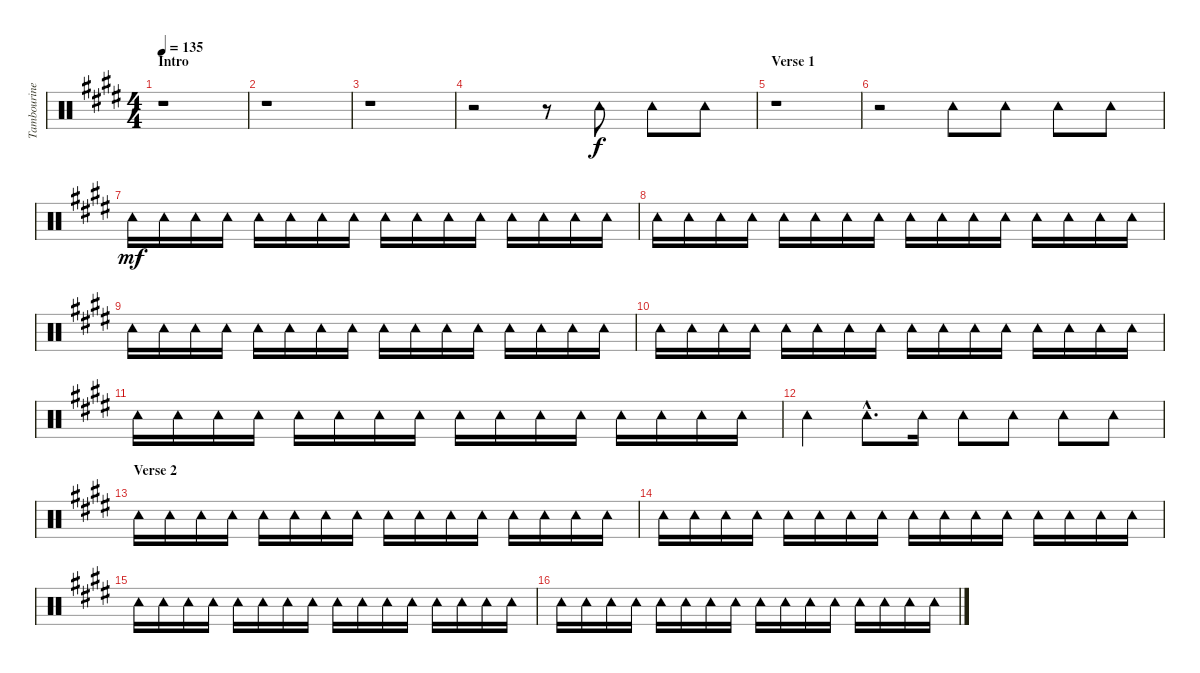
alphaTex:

\track ("Tambourine" "Tambourine") {instrument percussion}
\staff {score}
\articulation defaults
\ts (4 4)
\section ("" "Intro")
\tempo 135
\clef neutral
\ks e
r.1{dy f} |
r.1 |
r.1 |
r.2 r.8 "Tambourine (hit)".8 "Tambourine (hit)".8 "Tambourine (hit)".8 |
\section ("" "Verse 1")
r.1 |
r.2 "Tambourine (hit)".8 "Tambourine (hit)".8 "Tambourine (hit)".8 "Tambourine (hit)".8 |
"Tambourine (hit)".16{dy mf} "Tambourine (hit)".16 "Tambourine (hit)".16 "Tambourine (hit)".16 "Tambourine (hit)".16 "Tambourine (hit)".16 "Tambourine (hit)".16 "Tambourine (hit)".16 "Tambourine (hit)".16 "Tambourine (hit)".16 "Tambourine (hit)".16 "Tambourine (hit)".16 "Tambourine (hit)".16 "Tambourine (hit)".16 "Tambourine (hit)".16 "Tambourine (hit)".16 |
"Tambourine (hit)".16 "Tambourine (hit)".16 "Tambourine (hit)".16 "Tambourine (hit)".16 "Tambourine (hit)".16 "Tambourine (hit)".16 "Tambourine (hit)".16 "Tambourine (hit)".16 "Tambourine (hit)".16 "Tambourine (hit)".16 "Tambourine (hit)".16 "Tambourine (hit)".16 "Tambourine (hit)".16 "Tambourine (hit)".16 "Tambourine (hit)".16 "Tambourine (hit)".16 |
"Tambourine (hit)".16 "Tambourine (hit)".16 "Tambourine (hit)".16 "Tambourine (hit)".16 "Tambourine (hit)".16 "Tambourine (hit)".16 "Tambourine (hit)".16 "Tambourine (hit)".16 "Tambourine (hit)".16 "Tambourine (hit)".16 "Tambourine (hit)".16 "Tambourine (hit)".16 "Tambourine (hit)".16 "Tambourine (hit)".16 "Tambourine (hit)".16 "Tambourine (hit)".16 |
"Tambourine (hit)".16 "Tambourine (hit)".16 "Tambourine (hit)".16 "Tambourine (hit)".16 "Tambourine (hit)".16 "Tambourine (hit)".16 "Tambourine (hit)".16 "Tambourine (hit)".16 "Tambourine (hit)".16 "Tambourine (hit)".16 "Tambourine (hit)".16 "Tambourine (hit)".16 "Tambourine (hit)".16 "Tambourine (hit)".16 "Tambourine (hit)".16 "Tambourine (hit)".16 |
"Tambourine (hit)".16 "Tambourine (hit)".16 "Tambourine (hit)".16 "Tambourine (hit)".16 "Tambourine (hit)".16 "Tambourine (hit)".16 "Tambourine (hit)".16 "Tambourine (hit)".16 "Tambourine (hit)".16 "Tambourine (hit)".16 "Tambourine (hit)".16 "Tambourine (hit)".16 "Tambourine (hit)".16 "Tambourine (hit)".16 "Tambourine (hit)".16 "Tambourine (hit)".16 |
"Tambourine (hit)".4 "Tambourine (hit)"{hac}.8{d} "Tambourine (hit)".16 "Tambourine (hit)".8 "Tambourine (hit)".8 "Tambourine (hit)".8 "Tambourine (hit)".8 |
\section ("" "Verse 2")
"Tambourine (hit)".16 "Tambourine (hit)".16 "Tambourine (hit)".16 "Tambourine (hit)".16 "Tambourine (hit)".16 "Tambourine (hit)".16 "Tambourine (hit)".16 "Tambourine (hit)".16 "Tambourine (hit)".16 "Tambourine (hit)".16 "Tambourine (hit)".16 "Tambourine (hit)".16 "Tambourine (hit)".16 "Tambourine (hit)".16 "Tambourine (hit)".16 "Tambourine (hit)".16 |
"Tambourine (hit)".16 "Tambourine (hit)".16 "Tambourine (hit)".16 "Tambourine (hit)".16 "Tambourine (hit)".16 "Tambourine (hit)".16 "Tambourine (hit)".16 "Tambourine (hit)".16 "Tambourine (hit)".16 "Tambourine (hit)".16 "Tambourine (hit)".16 "Tambourine (hit)".16 "Tambourine (hit)".16 "Tambourine (hit)".16 "Tambourine (hit)".16 "Tambourine (hit)".16 |
"Tambourine (hit)".16 "Tambourine (hit)".16 "Tambourine (hit)".16 "Tambourine (hit)".16 "Tambourine (hit)".16 "Tambourine (hit)".16 "Tambourine (hit)".16 "Tambourine (hit)".16 "Tambourine (hit)".16 "Tambourine (hit)".16 "Tambourine (hit)".16 "Tambourine (hit)".16 "Tambourine (hit)".16 "Tambourine (hit)".16 "Tambourine (hit)".16 "Tambourine (hit)".16 |
"Tambourine (hit)".16 "Tambourine (hit)".16 "Tambourine (hit)".16 "Tambourine (hit)".16 "Tambourine (hit)".16 "Tambourine (hit)".16 "Tambourine (hit)".16 "Tambourine (hit)".16 "Tambourine (hit)".16 "Tambourine (hit)".16 "Tambourine (hit)".16 "Tambourine (hit)".16 "Tambourine (hit)".16 "Tambourine (hit)".16 "Tambourine (hit)".16 "Tambourine (hit)".16
